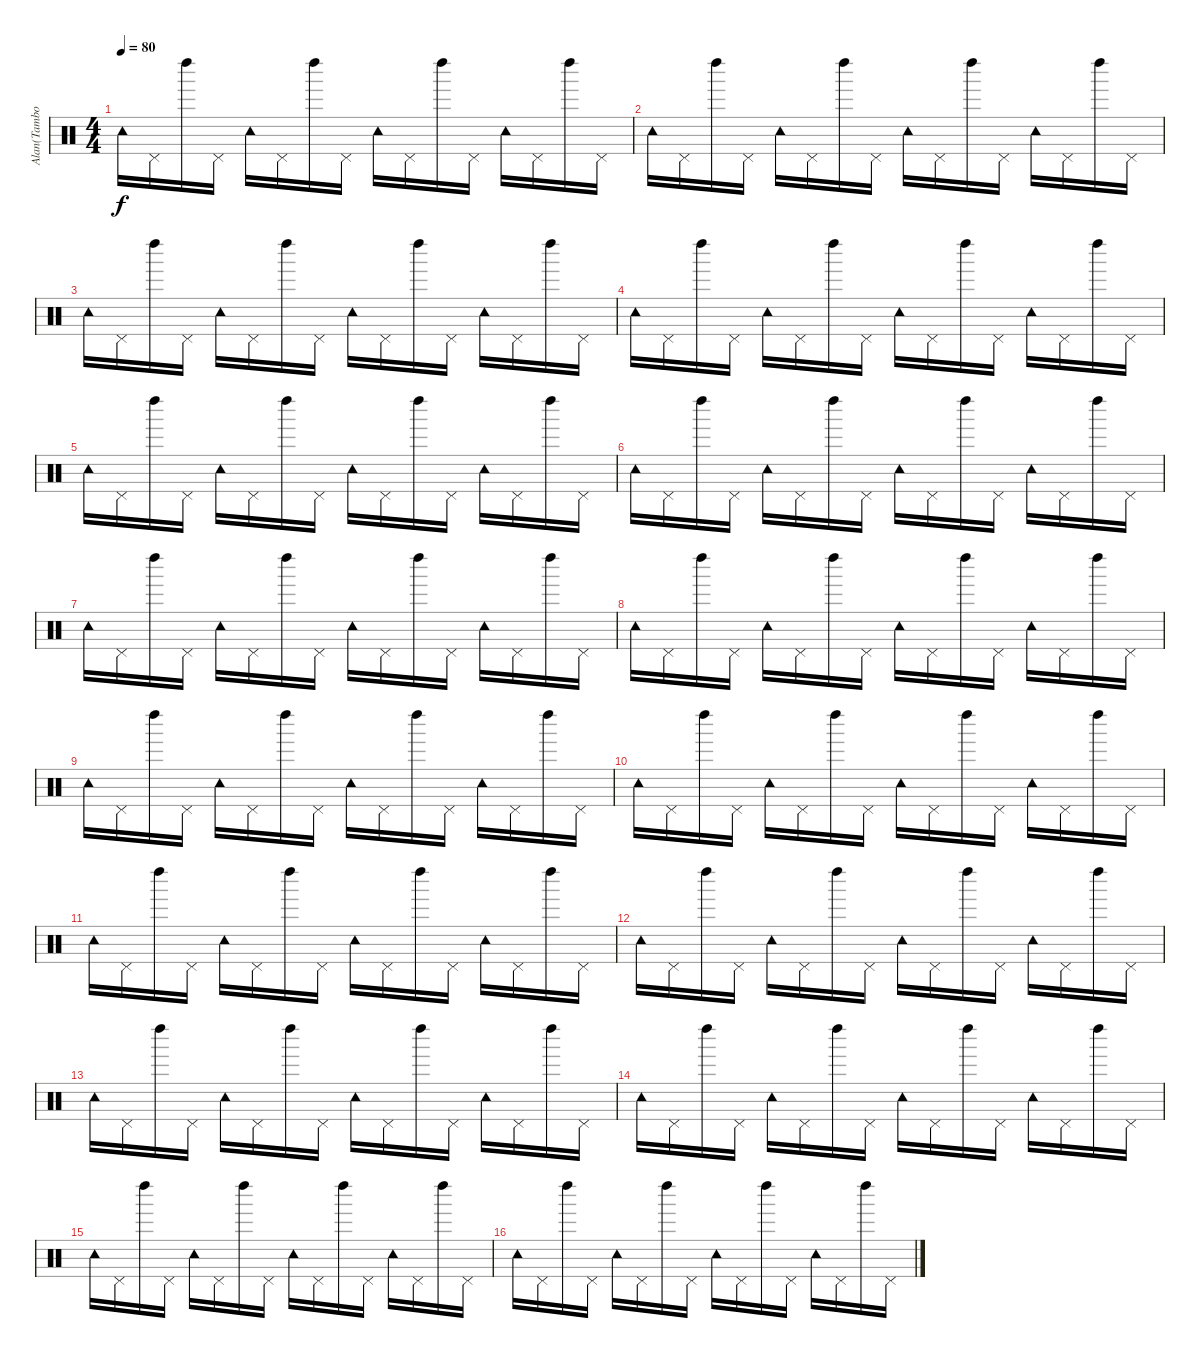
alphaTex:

\track ("Alan(Tambourine)" "Alan(Tambo") {instrument percussion}
\staff {score}
\articulation defaults
\ts (4 4)
\tempo 80
\clef neutral
\ks c "Tambourine (hit)".16{dy f} "Pedal Hi-Hat (hit)".16 "Left Maraca (hit)".16 "Pedal Hi-Hat (hit)".16 "Tambourine (hit)".16 "Pedal Hi-Hat (hit)".16 "Left Maraca (hit)".16 "Pedal Hi-Hat (hit)".16 "Tambourine (hit)".16 "Pedal Hi-Hat (hit)".16 "Left Maraca (hit)".16 "Pedal Hi-Hat (hit)".16 "Tambourine (hit)".16 "Pedal Hi-Hat (hit)".16 "Left Maraca (hit)".16 "Pedal Hi-Hat (hit)".16
|
"Tambourine (hit)".16 "Pedal Hi-Hat (hit)".16 "Left Maraca (hit)".16 "Pedal Hi-Hat (hit)".16 "Tambourine (hit)".16 "Pedal Hi-Hat (hit)".16 "Left Maraca (hit)".16 "Pedal Hi-Hat (hit)".16 "Tambourine (hit)".16 "Pedal Hi-Hat (hit)".16 "Left Maraca (hit)".16 "Pedal Hi-Hat (hit)".16 "Tambourine (hit)".16 "Pedal Hi-Hat (hit)".16 "Left Maraca (hit)".16 "Pedal Hi-Hat (hit)".16 |
"Tambourine (hit)".16 "Pedal Hi-Hat (hit)".16 "Left Maraca (hit)".16 "Pedal Hi-Hat (hit)".16 "Tambourine (hit)".16 "Pedal Hi-Hat (hit)".16 "Left Maraca (hit)".16 "Pedal Hi-Hat (hit)".16 "Tambourine (hit)".16 "Pedal Hi-Hat (hit)".16 "Left Maraca (hit)".16 "Pedal Hi-Hat (hit)".16 "Tambourine (hit)".16 "Pedal Hi-Hat (hit)".16 "Left Maraca (hit)".16 "Pedal Hi-Hat (hit)".16 |
"Tambourine (hit)".16 "Pedal Hi-Hat (hit)".16 "Left Maraca (hit)".16 "Pedal Hi-Hat (hit)".16 "Tambourine (hit)".16 "Pedal Hi-Hat (hit)".16 "Left Maraca (hit)".16 "Pedal Hi-Hat (hit)".16 "Tambourine (hit)".16 "Pedal Hi-Hat (hit)".16 "Left Maraca (hit)".16 "Pedal Hi-Hat (hit)".16 "Tambourine (hit)".16 "Pedal Hi-Hat (hit)".16 "Left Maraca (hit)".16 "Pedal Hi-Hat (hit)".16 |
"Tambourine (hit)".16 "Pedal Hi-Hat (hit)".16 "Left Maraca (hit)".16 "Pedal Hi-Hat (hit)".16 "Tambourine (hit)".16 "Pedal Hi-Hat (hit)".16 "Left Maraca (hit)".16 "Pedal Hi-Hat (hit)".16 "Tambourine (hit)".16 "Pedal Hi-Hat (hit)".16 "Left Maraca (hit)".16 "Pedal Hi-Hat (hit)".16 "Tambourine (hit)".16 "Pedal Hi-Hat (hit)".16 "Left Maraca (hit)".16 "Pedal Hi-Hat (hit)".16 |
"Tambourine (hit)".16 "Pedal Hi-Hat (hit)".16 "Left Maraca (hit)".16 "Pedal Hi-Hat (hit)".16 "Tambourine (hit)".16 "Pedal Hi-Hat (hit)".16 "Left Maraca (hit)".16 "Pedal Hi-Hat (hit)".16 "Tambourine (hit)".16 "Pedal Hi-Hat (hit)".16 "Left Maraca (hit)".16 "Pedal Hi-Hat (hit)".16 "Tambourine (hit)".16 "Pedal Hi-Hat (hit)".16 "Left Maraca (hit)".16 "Pedal Hi-Hat (hit)".16 |
"Tambourine (hit)".16 "Pedal Hi-Hat (hit)".16 "Left Maraca (hit)".16 "Pedal Hi-Hat (hit)".16 "Tambourine (hit)".16 "Pedal Hi-Hat (hit)".16 "Left Maraca (hit)".16 "Pedal Hi-Hat (hit)".16 "Tambourine (hit)".16 "Pedal Hi-Hat (hit)".16 "Left Maraca (hit)".16 "Pedal Hi-Hat (hit)".16 "Tambourine (hit)".16 "Pedal Hi-Hat (hit)".16 "Left Maraca (hit)".16 "Pedal Hi-Hat (hit)".16 |
"Tambourine (hit)".16 "Pedal Hi-Hat (hit)".16 "Left Maraca (hit)".16 "Pedal Hi-Hat (hit)".16 "Tambourine (hit)".16 "Pedal Hi-Hat (hit)".16 "Left Maraca (hit)".16 "Pedal Hi-Hat (hit)".16 "Tambourine (hit)".16 "Pedal Hi-Hat (hit)".16 "Left Maraca (hit)".16 "Pedal Hi-Hat (hit)".16 "Tambourine (hit)".16 "Pedal Hi-Hat (hit)".16 "Left Maraca (hit)".16 "Pedal Hi-Hat (hit)".16 |
"Tambourine (hit)".16 "Pedal Hi-Hat (hit)".16 "Left Maraca (hit)".16 "Pedal Hi-Hat (hit)".16 "Tambourine (hit)".16 "Pedal Hi-Hat (hit)".16 "Left Maraca (hit)".16 "Pedal Hi-Hat (hit)".16 "Tambourine (hit)".16 "Pedal Hi-Hat (hit)".16 "Left Maraca (hit)".16 "Pedal Hi-Hat (hit)".16 "Tambourine (hit)".16 "Pedal Hi-Hat (hit)".16 "Left Maraca (hit)".16 "Pedal Hi-Hat (hit)".16 |
"Tambourine (hit)".16 "Pedal Hi-Hat (hit)".16 "Left Maraca (hit)".16 "Pedal Hi-Hat (hit)".16 "Tambourine (hit)".16 "Pedal Hi-Hat (hit)".16 "Left Maraca (hit)".16 "Pedal Hi-Hat (hit)".16 "Tambourine (hit)".16 "Pedal Hi-Hat (hit)".16 "Left Maraca (hit)".16 "Pedal Hi-Hat (hit)".16 "Tambourine (hit)".16 "Pedal Hi-Hat (hit)".16 "Left Maraca (hit)".16 "Pedal Hi-Hat (hit)".16 |
"Tambourine (hit)".16 "Pedal Hi-Hat (hit)".16 "Left Maraca (hit)".16 "Pedal Hi-Hat (hit)".16 "Tambourine (hit)".16 "Pedal Hi-Hat (hit)".16 "Left Maraca (hit)".16 "Pedal Hi-Hat (hit)".16 "Tambourine (hit)".16 "Pedal Hi-Hat (hit)".16 "Left Maraca (hit)".16 "Pedal Hi-Hat (hit)".16 "Tambourine (hit)".16 "Pedal Hi-Hat (hit)".16 "Left Maraca (hit)".16 "Pedal Hi-Hat (hit)".16 |
"Tambourine (hit)".16 "Pedal Hi-Hat (hit)".16 "Left Maraca (hit)".16 "Pedal Hi-Hat (hit)".16 "Tambourine (hit)".16 "Pedal Hi-Hat (hit)".16 "Left Maraca (hit)".16 "Pedal Hi-Hat (hit)".16 "Tambourine (hit)".16 "Pedal Hi-Hat (hit)".16 "Left Maraca (hit)".16 "Pedal Hi-Hat (hit)".16 "Tambourine (hit)".16 "Pedal Hi-Hat (hit)".16 "Left Maraca (hit)".16 "Pedal Hi-Hat (hit)".16 |
"Tambourine (hit)".16 "Pedal Hi-Hat (hit)".16 "Left Maraca (hit)".16 "Pedal Hi-Hat (hit)".16 "Tambourine (hit)".16 "Pedal Hi-Hat (hit)".16 "Left Maraca (hit)".16 "Pedal Hi-Hat (hit)".16 "Tambourine (hit)".16 "Pedal Hi-Hat (hit)".16 "Left Maraca (hit)".16 "Pedal Hi-Hat (hit)".16 "Tambourine (hit)".16 "Pedal Hi-Hat (hit)".16 "Left Maraca (hit)".16 "Pedal Hi-Hat (hit)".16 |
"Tambourine (hit)".16 "Pedal Hi-Hat (hit)".16 "Left Maraca (hit)".16 "Pedal Hi-Hat (hit)".16 "Tambourine (hit)".16 "Pedal Hi-Hat (hit)".16 "Left Maraca (hit)".16 "Pedal Hi-Hat (hit)".16 "Tambourine (hit)".16 "Pedal Hi-Hat (hit)".16 "Left Maraca (hit)".16 "Pedal Hi-Hat (hit)".16 "Tambourine (hit)".16 "Pedal Hi-Hat (hit)".16 "Left Maraca (hit)".16 "Pedal Hi-Hat (hit)".16 |
"Tambourine (hit)".16 "Pedal Hi-Hat (hit)".16 "Left Maraca (hit)".16 "Pedal Hi-Hat (hit)".16 "Tambourine (hit)".16 "Pedal Hi-Hat (hit)".16 "Left Maraca (hit)".16 "Pedal Hi-Hat (hit)".16 "Tambourine (hit)".16 "Pedal Hi-Hat (hit)".16 "Left Maraca (hit)".16 "Pedal Hi-Hat (hit)".16 "Tambourine (hit)".16 "Pedal Hi-Hat (hit)".16 "Left Maraca (hit)".16 "Pedal Hi-Hat (hit)".16 |
"Tambourine (hit)".16 "Pedal Hi-Hat (hit)".16 "Left Maraca (hit)".16 "Pedal Hi-Hat (hit)".16 "Tambourine (hit)".16 "Pedal Hi-Hat (hit)".16 "Left Maraca (hit)".16 "Pedal Hi-Hat (hit)".16 "Tambourine (hit)".16 "Pedal Hi-Hat (hit)".16 "Left Maraca (hit)".16 "Pedal Hi-Hat (hit)".16 "Tambourine (hit)".16 "Pedal Hi-Hat (hit)".16 "Left Maraca (hit)".16 "Pedal Hi-Hat (hit)".16
